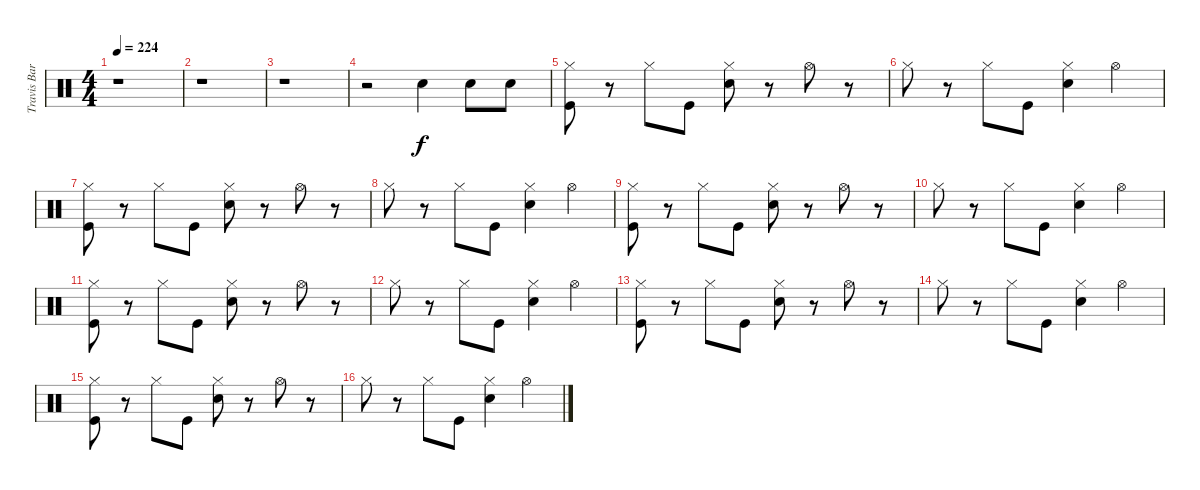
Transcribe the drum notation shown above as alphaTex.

\track ("Travis Barker (Drums)" "Travis Bar") {instrument percussion}
\staff {score}
\articulation defaults
\ts (4 4)
\tempo 224
\clef neutral
\ks c
r.1{dy f} |
r.1 |
r.1 |
r.2 "Electric Snare (hit)".4 "Snare (hit) 2".8 "Snare (hit) 2".8 |
("Kick (hit)" "Hi-Hat (closed)").8 r.8 "Hi-Hat (closed)".8 "Kick (hit)".8 ("Electric Snare (hit)" "Hi-Hat (closed)").8 r.8 "Hi-Hat (open)".8 r.8 |
"Hi-Hat (closed)".8 r.8 "Hi-Hat (closed)".8 "Kick (hit)".8 ("Electric Snare (hit)" "Hi-Hat (closed)").4 "Hi-Hat (open)".4 |
("Kick (hit)" "Hi-Hat (closed)").8 r.8 "Hi-Hat (closed)".8 "Kick (hit)".8 ("Electric Snare (hit)" "Hi-Hat (closed)").8 r.8 "Hi-Hat (open)".8 r.8 |
"Hi-Hat (closed)".8 r.8 "Hi-Hat (closed)".8 "Kick (hit)".8 ("Electric Snare (hit)" "Hi-Hat (closed)").4 "Hi-Hat (open)".4 |
("Kick (hit)" "Hi-Hat (closed)").8 r.8 "Hi-Hat (closed)".8 "Kick (hit)".8 ("Electric Snare (hit)" "Hi-Hat (closed)").8 r.8 "Hi-Hat (open)".8 r.8 |
"Hi-Hat (closed)".8 r.8 "Hi-Hat (closed)".8 "Kick (hit)".8 ("Electric Snare (hit)" "Hi-Hat (closed)").4 "Hi-Hat (open)".4 |
("Kick (hit)" "Hi-Hat (closed)").8 r.8 "Hi-Hat (closed)".8 "Kick (hit)".8 ("Electric Snare (hit)" "Hi-Hat (closed)").8 r.8 "Hi-Hat (open)".8 r.8 |
"Hi-Hat (closed)".8 r.8 "Hi-Hat (closed)".8 "Kick (hit)".8 ("Electric Snare (hit)" "Hi-Hat (closed)").4 "Hi-Hat (open)".4 |
("Kick (hit)" "Hi-Hat (closed)").8 r.8 "Hi-Hat (closed)".8 "Kick (hit)".8 ("Electric Snare (hit)" "Hi-Hat (closed)").8 r.8 "Hi-Hat (open)".8 r.8 |
"Hi-Hat (closed)".8 r.8 "Hi-Hat (closed)".8 "Kick (hit)".8 ("Electric Snare (hit)" "Hi-Hat (closed)").4 "Hi-Hat (open)".4 |
("Kick (hit)" "Hi-Hat (closed)").8 r.8 "Hi-Hat (closed)".8 "Kick (hit)".8 ("Electric Snare (hit)" "Hi-Hat (closed)").8 r.8 "Hi-Hat (open)".8 r.8 |
"Hi-Hat (closed)".8 r.8 "Hi-Hat (closed)".8 "Kick (hit)".8 ("Electric Snare (hit)" "Hi-Hat (closed)").4 "Hi-Hat (open)".4
